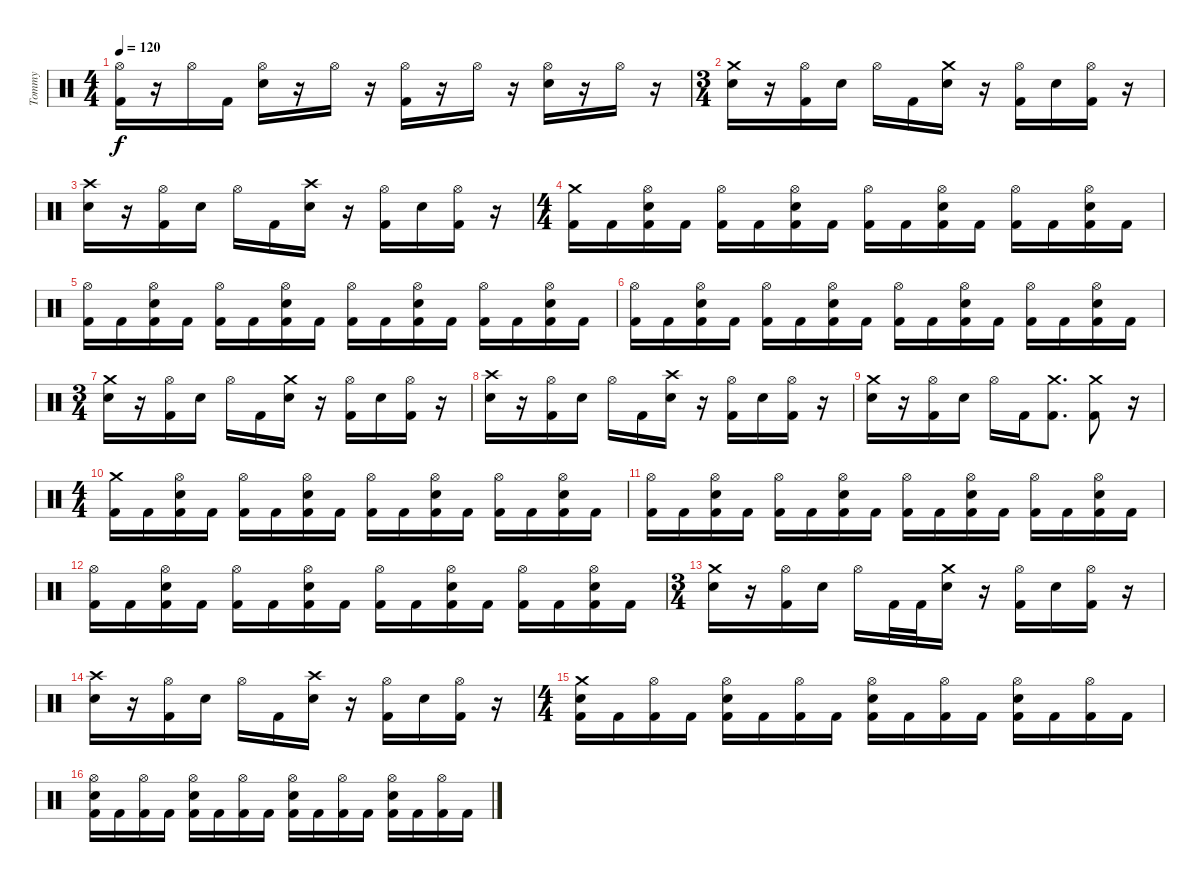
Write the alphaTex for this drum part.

\track ("Tommy" "Tommy") {instrument percussion}
\staff {score}
\articulation defaults
\ts (4 4)
\tempo 120
\clef neutral
\ks c
("Hi-Hat (open)" "Kick (hit) 2").16{dy f} r.16 "Hi-Hat (open)".16 "Kick (hit) 2".16 ("Hi-Hat (open)" "Electric Snare (hit)").16 r.16 "Hi-Hat (open)".16 r.16 ("Hi-Hat (open)" "Kick (hit) 2").16 r.16 "Hi-Hat (open)".16 r.16 ("Hi-Hat (open)" "Electric Snare (hit)").16 r.16 "Hi-Hat (open)".16 r.16 |
\ts (3 4)
("Crash medium (hit)" "Electric Snare (hit)").16 r.16 ("Hi-Hat (open)" "Kick (hit) 2").16 "Electric Snare (hit)".16 "Hi-Hat (open)".16 "Kick (hit) 2".16 ("Crash medium (hit)" "Electric Snare (hit)").16 r.16 ("Hi-Hat (open)" "Kick (hit) 2").16 "Electric Snare (hit)".16 ("Hi-Hat (open)" "Kick (hit) 2").16 r.16 |
("Crash high (hit)" "Electric Snare (hit)").16 r.16 ("Hi-Hat (open)" "Kick (hit) 2").16 "Electric Snare (hit)".16 "Hi-Hat (open)".16 "Kick (hit) 2".16 ("Crash high (hit)" "Electric Snare (hit)").16 r.16 ("Hi-Hat (open)" "Kick (hit) 2").16 "Electric Snare (hit)".16 ("Hi-Hat (open)" "Kick (hit) 2").16 r.16 |
\ts (4 4)
("Crash medium (hit)" "Kick (hit) 2").16 "Kick (hit) 2".16 ("Electric Snare (hit)" "Hi-Hat (open)" "Kick (hit) 2").16 "Kick (hit) 2".16 ("Hi-Hat (open)" "Kick (hit) 2").16 "Kick (hit) 2".16 ("Electric Snare (hit)" "Hi-Hat (open)" "Kick (hit) 2").16 "Kick (hit) 2".16 ("Hi-Hat (open)" "Kick (hit) 2").16 "Kick (hit) 2".16 ("Electric Snare (hit)" "Hi-Hat (open)" "Kick (hit) 2").16 "Kick (hit) 2".16 ("Hi-Hat (open)" "Kick (hit) 2").16 "Kick (hit) 2".16 ("Electric Snare (hit)" "Hi-Hat (open)" "Kick (hit) 2").16 "Kick (hit) 2".16 |
("Hi-Hat (open)" "Kick (hit) 2").16 "Kick (hit) 2".16 ("Electric Snare (hit)" "Hi-Hat (open)" "Kick (hit) 2").16 "Kick (hit) 2".16 ("Hi-Hat (open)" "Kick (hit) 2").16 "Kick (hit) 2".16 ("Electric Snare (hit)" "Hi-Hat (open)" "Kick (hit) 2").16 "Kick (hit) 2".16 ("Hi-Hat (open)" "Kick (hit) 2").16 "Kick (hit) 2".16 ("Electric Snare (hit)" "Hi-Hat (open)" "Kick (hit) 2").16 "Kick (hit) 2".16 ("Hi-Hat (open)" "Kick (hit) 2").16 "Kick (hit) 2".16 ("Electric Snare (hit)" "Hi-Hat (open)" "Kick (hit) 2").16 "Kick (hit) 2".16 |
("Hi-Hat (open)" "Kick (hit) 2").16 "Kick (hit) 2".16 ("Electric Snare (hit)" "Hi-Hat (open)" "Kick (hit) 2").16 "Kick (hit) 2".16 ("Hi-Hat (open)" "Kick (hit) 2").16 "Kick (hit) 2".16 ("Electric Snare (hit)" "Hi-Hat (open)" "Kick (hit) 2").16 "Kick (hit) 2".16 ("Hi-Hat (open)" "Kick (hit) 2").16 "Kick (hit) 2".16 ("Electric Snare (hit)" "Hi-Hat (open)" "Kick (hit) 2").16 "Kick (hit) 2".16 ("Hi-Hat (open)" "Kick (hit) 2").16 "Kick (hit) 2".16 ("Electric Snare (hit)" "Hi-Hat (open)" "Kick (hit) 2").16 "Kick (hit) 2".16 |
\ts (3 4)
("Crash medium (hit)" "Electric Snare (hit)").16 r.16 ("Hi-Hat (open)" "Kick (hit) 2").16 "Electric Snare (hit)".16 "Hi-Hat (open)".16 "Kick (hit) 2".16 ("Crash medium (hit)" "Electric Snare (hit)").16 r.16 ("Hi-Hat (open)" "Kick (hit) 2").16 "Electric Snare (hit)".16 ("Hi-Hat (open)" "Kick (hit) 2").16 r.16 |
("Crash high (hit)" "Electric Snare (hit)").16 r.16 ("Hi-Hat (open)" "Kick (hit) 2").16 "Electric Snare (hit)".16 "Hi-Hat (open)".16 "Kick (hit) 2".16 ("Crash high (hit)" "Electric Snare (hit)").16 r.16 ("Hi-Hat (open)" "Kick (hit) 2").16 "Electric Snare (hit)".16 ("Hi-Hat (open)" "Kick (hit) 2").16 r.16 |
("Crash medium (hit)" "Electric Snare (hit)").16 r.16 ("Hi-Hat (open)" "Kick (hit) 2").16 "Electric Snare (hit)".16 "Hi-Hat (open)".16 "Kick (hit) 2".16 ("Crash medium (hit)" "Kick (hit) 2").8{d} ("Crash medium (hit)" "Kick (hit) 2").8 r.16 |
\ts (4 4)
("Crash medium (hit)" "Kick (hit) 2").16 "Kick (hit) 2".16 ("Electric Snare (hit)" "Hi-Hat (open)" "Kick (hit) 2").16 "Kick (hit) 2".16 ("Hi-Hat (open)" "Kick (hit) 2").16 "Kick (hit) 2".16 ("Electric Snare (hit)" "Hi-Hat (open)" "Kick (hit) 2").16 "Kick (hit) 2".16 ("Hi-Hat (open)" "Kick (hit) 2").16 "Kick (hit) 2".16 ("Electric Snare (hit)" "Hi-Hat (open)" "Kick (hit) 2").16 "Kick (hit) 2".16 ("Hi-Hat (open)" "Kick (hit) 2").16 "Kick (hit) 2".16 ("Electric Snare (hit)" "Hi-Hat (open)" "Kick (hit) 2").16 "Kick (hit) 2".16 |
("Hi-Hat (open)" "Kick (hit) 2").16 "Kick (hit) 2".16 ("Electric Snare (hit)" "Hi-Hat (open)" "Kick (hit) 2").16 "Kick (hit) 2".16 ("Hi-Hat (open)" "Kick (hit) 2").16 "Kick (hit) 2".16 ("Electric Snare (hit)" "Hi-Hat (open)" "Kick (hit) 2").16 "Kick (hit) 2".16 ("Hi-Hat (open)" "Kick (hit) 2").16 "Kick (hit) 2".16 ("Electric Snare (hit)" "Hi-Hat (open)" "Kick (hit) 2").16 "Kick (hit) 2".16 ("Hi-Hat (open)" "Kick (hit) 2").16 "Kick (hit) 2".16 ("Electric Snare (hit)" "Hi-Hat (open)" "Kick (hit) 2").16 "Kick (hit) 2".16 |
("Hi-Hat (open)" "Kick (hit) 2").16 "Kick (hit) 2".16 ("Electric Snare (hit)" "Hi-Hat (open)" "Kick (hit) 2").16 "Kick (hit) 2".16 ("Hi-Hat (open)" "Kick (hit) 2").16 "Kick (hit) 2".16 ("Electric Snare (hit)" "Hi-Hat (open)" "Kick (hit) 2").16 "Kick (hit) 2".16 ("Hi-Hat (open)" "Kick (hit) 2").16 "Kick (hit) 2".16 ("Electric Snare (hit)" "Hi-Hat (open)" "Kick (hit) 2").16 "Kick (hit) 2".16 ("Hi-Hat (open)" "Kick (hit) 2").16 "Kick (hit) 2".16 ("Electric Snare (hit)" "Hi-Hat (open)" "Kick (hit) 2").16 "Kick (hit) 2".16 |
\ts (3 4)
("Crash medium (hit)" "Electric Snare (hit)").16 r.16 ("Hi-Hat (open)" "Kick (hit) 2").16 "Electric Snare (hit)".16 "Hi-Hat (open)".16 "Kick (hit) 2".32 "Kick (hit) 2".32 ("Crash medium (hit)" "Electric Snare (hit)").16 r.16 ("Hi-Hat (open)" "Kick (hit) 2").16 "Electric Snare (hit)".16 ("Hi-Hat (open)" "Kick (hit) 2").16 r.16 |
("Crash high (hit)" "Electric Snare (hit)").16 r.16 ("Hi-Hat (open)" "Kick (hit) 2").16 "Electric Snare (hit)".16 "Hi-Hat (open)".16 "Kick (hit) 2".16 ("Crash high (hit)" "Electric Snare (hit)").16 r.16 ("Hi-Hat (open)" "Kick (hit) 2").16 "Electric Snare (hit)".16 ("Hi-Hat (open)" "Kick (hit) 2").16 r.16 |
\ts (4 4)
("Crash medium (hit)" "Electric Snare (hit)" "Kick (hit) 2").16 "Kick (hit) 2".16 ("Hi-Hat (open)" "Kick (hit) 2").16 "Kick (hit) 2".16 ("Hi-Hat (open)" "Electric Snare (hit)" "Kick (hit) 2").16 "Kick (hit) 2".16 ("Hi-Hat (open)" "Kick (hit) 2").16 "Kick (hit) 2".16 ("Hi-Hat (open)" "Electric Snare (hit)" "Kick (hit) 2").16 "Kick (hit) 2".16 ("Hi-Hat (open)" "Kick (hit) 2").16 "Kick (hit) 2".16 ("Hi-Hat (open)" "Electric Snare (hit)" "Kick (hit) 2").16 "Kick (hit) 2".16 ("Hi-Hat (open)" "Kick (hit) 2").16 "Kick (hit) 2".16 |
("Hi-Hat (open)" "Electric Snare (hit)" "Kick (hit) 2").16 "Kick (hit) 2".16 ("Hi-Hat (open)" "Kick (hit) 2").16 "Kick (hit) 2".16 ("Hi-Hat (open)" "Electric Snare (hit)" "Kick (hit) 2").16 "Kick (hit) 2".16 ("Hi-Hat (open)" "Kick (hit) 2").16 "Kick (hit) 2".16 ("Hi-Hat (open)" "Electric Snare (hit)" "Kick (hit) 2").16 "Kick (hit) 2".16 ("Hi-Hat (open)" "Kick (hit) 2").16 "Kick (hit) 2".16 ("Hi-Hat (open)" "Electric Snare (hit)" "Kick (hit) 2").16 "Kick (hit) 2".16 ("Hi-Hat (open)" "Kick (hit) 2").16 "Kick (hit) 2".16
